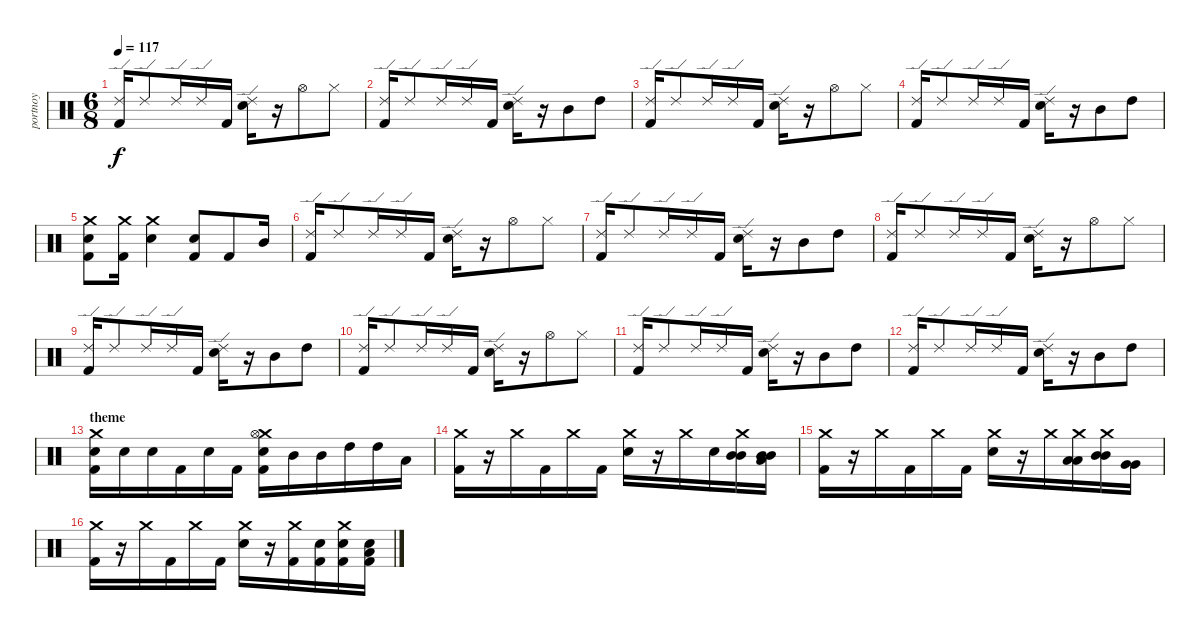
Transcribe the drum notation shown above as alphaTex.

\track ("portnoy" "portnoy") {instrument percussion}
\staff {score}
\articulation defaults
\ts (6 8)
\tempo 117
\clef neutral
\ks c
("Ride (edge) 2" "Kick (hit) 2").16{dy f} "Ride (edge) 2".8 "Ride (edge) 2".16 "Ride (edge) 2".16 "Kick (hit) 2".16 ("Ride (edge) 2" "Electric Snare (hit)").16 r.16 "Hi-Hat (open)".8 "Hi-Hat (closed)".8 |
("Ride (edge) 2" "Kick (hit) 2").16 "Ride (edge) 2".8 "Ride (edge) 2".16 "Ride (edge) 2".16 "Kick (hit) 2".16 ("Ride (edge) 2" "Electric Snare (hit)").16 r.16 "Mid Tom (hit)".8 "High Tom (hit)".8 |
("Ride (edge) 2" "Kick (hit) 2").16 "Ride (edge) 2".8 "Ride (edge) 2".16 "Ride (edge) 2".16 "Kick (hit) 2".16 ("Ride (edge) 2" "Electric Snare (hit)").16 r.16 "Hi-Hat (open)".8 "Hi-Hat (closed)".8 |
("Ride (edge) 2" "Kick (hit) 2").16 "Ride (edge) 2".8 "Ride (edge) 2".16 "Ride (edge) 2".16 "Kick (hit) 2".16 ("Ride (edge) 2" "Electric Snare (hit)").16 r.16 "Mid Tom (hit)".8 "High Tom (hit)".8 |
("Crash medium (hit)" "Electric Snare (hit)" "Kick (hit) 2").8 ("Crash medium (hit)" "Kick (hit) 2").16 ("Crash medium (hit)" "Electric Snare (hit)").4 ("Electric Snare (hit)" "Kick (hit) 2").8 "Kick (hit) 2".8 "Mid Tom (hit)".16 |
("Ride (edge) 2" "Kick (hit) 2").16 "Ride (edge) 2".8 "Ride (edge) 2".16 "Ride (edge) 2".16 "Kick (hit) 2".16 ("Ride (edge) 2" "Electric Snare (hit)").16 r.16 "Hi-Hat (open)".8 "Hi-Hat (closed)".8 |
("Ride (edge) 2" "Kick (hit) 2").16 "Ride (edge) 2".8 "Ride (edge) 2".16 "Ride (edge) 2".16 "Kick (hit) 2".16 ("Ride (edge) 2" "Electric Snare (hit)").16 r.16 "Mid Tom (hit)".8 "High Tom (hit)".8 |
("Ride (edge) 2" "Kick (hit) 2").16 "Ride (edge) 2".8 "Ride (edge) 2".16 "Ride (edge) 2".16 "Kick (hit) 2".16 ("Ride (edge) 2" "Electric Snare (hit)").16 r.16 "Hi-Hat (open)".8 "Hi-Hat (closed)".8 |
("Ride (edge) 2" "Kick (hit) 2").16 "Ride (edge) 2".8 "Ride (edge) 2".16 "Ride (edge) 2".16 "Kick (hit) 2".16 ("Ride (edge) 2" "Electric Snare (hit)").16 r.16 "Mid Tom (hit)".8 "High Tom (hit)".8 |
("Ride (edge) 2" "Kick (hit) 2").16 "Ride (edge) 2".8 "Ride (edge) 2".16 "Ride (edge) 2".16 "Kick (hit) 2".16 ("Ride (edge) 2" "Electric Snare (hit)").16 r.16 "Hi-Hat (open)".8 "Hi-Hat (closed)".8 |
("Ride (edge) 2" "Kick (hit) 2").16 "Ride (edge) 2".8 "Ride (edge) 2".16 "Ride (edge) 2".16 "Kick (hit) 2".16 ("Ride (edge) 2" "Electric Snare (hit)").16 r.16 "Mid Tom (hit)".8 "High Tom (hit)".8 |
("Ride (edge) 2" "Kick (hit) 2").16 "Ride (edge) 2".8 "Ride (edge) 2".16 "Ride (edge) 2".16 "Kick (hit) 2".16 ("Ride (edge) 2" "Electric Snare (hit)").16 r.16 "Mid Tom (hit)".8 "High Tom (hit)".8 |
\section ("" "theme ")
("Crash medium (hit)" "Kick (hit) 2" "Electric Snare (hit)").16 "Electric Snare (hit)".16 "Electric Snare (hit)".16 "Kick (hit) 2".16 "Electric Snare (hit)".16 "Kick (hit) 2".16 ("Crash medium (hit)" "Hi-Hat (open)" "Electric Snare (hit)" "Kick (hit) 2").16 "Mid Tom (hit)".16 "Mid Tom (hit)".16 "High Tom (hit)".16 "High Tom (hit)".16 "Low Tom (hit)".16 |
("Crash medium (hit)" "Kick (hit) 2").16 r.16 "Crash medium (hit)".16 "Kick (hit) 2".16 "Crash medium (hit)".16 "Kick (hit) 2".16 ("Crash medium (hit)" "Electric Snare (hit)").16 r.16 "Crash medium (hit)".16 "Electric Snare (hit)".16 ("Mid Tom (hit)" "Mid Tom (hit)" "Crash medium (hit)").16 ("Mid Tom (hit)" "Mid Tom (hit)" "Low Tom (hit)").16 |
("Crash medium (hit)" "Kick (hit) 2").16 r.16 "Crash medium (hit)".16 "Kick (hit) 2".16 "Crash medium (hit)".16 "Kick (hit) 2".16 ("Crash medium (hit)" "Electric Snare (hit)").16 r.16 "Crash medium (hit)".16 ("Low Tom (hit)" "Low Tom (hit)" "Crash medium (hit)").16 ("Mid Tom (hit)" "Mid Tom (hit)" "Crash medium (hit)").16 ("Very Low Tom (hit)" "Very Low Tom (hit)").16 |
("Crash medium (hit)" "Kick (hit) 2").16 r.16 "Crash medium (hit)".16 "Kick (hit) 2".16 "Crash medium (hit)".16 "Kick (hit) 2".16 ("Crash medium (hit)" "Electric Snare (hit)").16 r.16 ("Crash medium (hit)" "Kick (hit) 2").16 ("Electric Snare (hit)" "Kick (hit) 2").16 ("Crash medium (hit)" "Electric Snare (hit)" "Kick (hit) 2").16 ("Low Tom (hit)" "Electric Snare (hit)" "Kick (hit) 2").16
